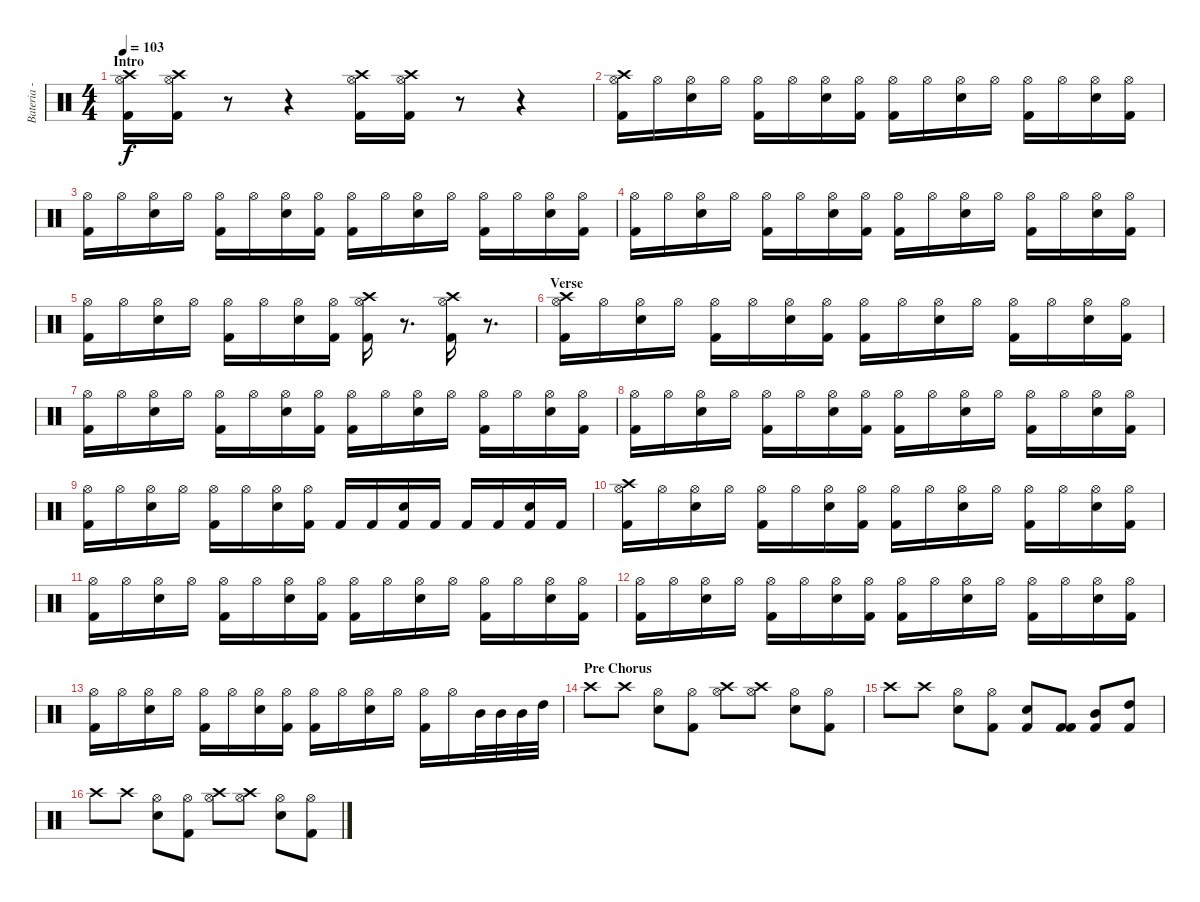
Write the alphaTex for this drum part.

\track ("Bateria - Larzon" "Bateria - ") {instrument percussion}
\staff {score}
\articulation defaults
\ts (4 4)
\section ("" "Intro")
\tempo 103
\clef neutral
\ks c
("Hi-Hat (open)" "Crash high (hit)" "Kick (hit) 2").16{dy f} ("Hi-Hat (open)" "Crash high (hit)" "Kick (hit) 2").16 r.8{volume 0} r.4 ("Hi-Hat (open)" "Crash high (hit)" "Kick (hit) 2").16{volume 13} ("Hi-Hat (open)" "Crash high (hit)" "Kick (hit) 2").16 r.8{volume 0} r.4 |
("Kick (hit) 2" "Crash high (hit)" "Hi-Hat (open)").16{volume 13} "Hi-Hat (open)".16 ("Snare (hit) 2" "Hi-Hat (open)").16 "Hi-Hat (open)".16 ("Kick (hit) 2" "Hi-Hat (open)").16 "Hi-Hat (open)".16 ("Snare (hit) 2" "Hi-Hat (open)").16 ("Kick (hit) 2" "Hi-Hat (open)").16 ("Kick (hit) 2" "Hi-Hat (open)").16 "Hi-Hat (open)".16 ("Snare (hit) 2" "Hi-Hat (open)").16 "Hi-Hat (open)".16 ("Kick (hit) 2" "Hi-Hat (open)").16 "Hi-Hat (open)".16 ("Snare (hit) 2" "Hi-Hat (open)").16 ("Kick (hit) 2" "Hi-Hat (open)").16 |
("Kick (hit) 2" "Hi-Hat (open)").16 "Hi-Hat (open)".16 ("Snare (hit) 2" "Hi-Hat (open)").16 "Hi-Hat (open)".16 ("Kick (hit) 2" "Hi-Hat (open)").16 "Hi-Hat (open)".16 ("Snare (hit) 2" "Hi-Hat (open)").16 ("Kick (hit) 2" "Hi-Hat (open)").16 ("Kick (hit) 2" "Hi-Hat (open)").16 "Hi-Hat (open)".16 ("Snare (hit) 2" "Hi-Hat (open)").16 "Hi-Hat (open)".16 ("Kick (hit) 2" "Hi-Hat (open)").16 "Hi-Hat (open)".16 ("Snare (hit) 2" "Hi-Hat (open)").16 ("Kick (hit) 2" "Hi-Hat (open)").16 |
("Kick (hit) 2" "Hi-Hat (open)").16 "Hi-Hat (open)".16 ("Snare (hit) 2" "Hi-Hat (open)").16 "Hi-Hat (open)".16 ("Kick (hit) 2" "Hi-Hat (open)").16 "Hi-Hat (open)".16 ("Snare (hit) 2" "Hi-Hat (open)").16 ("Kick (hit) 2" "Hi-Hat (open)").16 ("Kick (hit) 2" "Hi-Hat (open)").16 "Hi-Hat (open)".16 ("Snare (hit) 2" "Hi-Hat (open)").16 "Hi-Hat (open)".16 ("Kick (hit) 2" "Hi-Hat (open)").16 "Hi-Hat (open)".16 ("Snare (hit) 2" "Hi-Hat (open)").16 ("Kick (hit) 2" "Hi-Hat (open)").16 |
("Kick (hit) 2" "Hi-Hat (open)").16 "Hi-Hat (open)".16 ("Snare (hit) 2" "Hi-Hat (open)").16 "Hi-Hat (open)".16 ("Kick (hit) 2" "Hi-Hat (open)").16 "Hi-Hat (open)".16 ("Snare (hit) 2" "Hi-Hat (open)").16 ("Kick (hit) 2" "Hi-Hat (open)").16 ("Hi-Hat (open)" "Crash high (hit)" "Kick (hit) 2").16 r.8{d volume 0} ("Hi-Hat (open)" "Crash high (hit)" "Kick (hit) 2").16{volume 13} r.8{d volume 0} |
\section ("" "Verse")
("Kick (hit) 2" "Crash high (hit)" "Hi-Hat (open)").16{volume 13} "Hi-Hat (open)".16 ("Snare (hit) 2" "Hi-Hat (open)").16 "Hi-Hat (open)".16 ("Kick (hit) 2" "Hi-Hat (open)").16 "Hi-Hat (open)".16 ("Snare (hit) 2" "Hi-Hat (open)").16 ("Kick (hit) 2" "Hi-Hat (open)").16 ("Kick (hit) 2" "Hi-Hat (open)").16 "Hi-Hat (open)".16 ("Snare (hit) 2" "Hi-Hat (open)").16 "Hi-Hat (open)".16 ("Kick (hit) 2" "Hi-Hat (open)").16 "Hi-Hat (open)".16 ("Snare (hit) 2" "Hi-Hat (open)").16 ("Kick (hit) 2" "Hi-Hat (open)").16 |
("Kick (hit) 2" "Hi-Hat (open)").16 "Hi-Hat (open)".16 ("Snare (hit) 2" "Hi-Hat (open)").16 "Hi-Hat (open)".16 ("Kick (hit) 2" "Hi-Hat (open)").16 "Hi-Hat (open)".16 ("Snare (hit) 2" "Hi-Hat (open)").16 ("Kick (hit) 2" "Hi-Hat (open)").16 ("Kick (hit) 2" "Hi-Hat (open)").16 "Hi-Hat (open)".16 ("Snare (hit) 2" "Hi-Hat (open)").16 "Hi-Hat (open)".16 ("Kick (hit) 2" "Hi-Hat (open)").16 "Hi-Hat (open)".16 ("Snare (hit) 2" "Hi-Hat (open)").16 ("Kick (hit) 2" "Hi-Hat (open)").16 |
("Kick (hit) 2" "Hi-Hat (open)").16 "Hi-Hat (open)".16 ("Snare (hit) 2" "Hi-Hat (open)").16 "Hi-Hat (open)".16 ("Kick (hit) 2" "Hi-Hat (open)").16 "Hi-Hat (open)".16 ("Snare (hit) 2" "Hi-Hat (open)").16 ("Kick (hit) 2" "Hi-Hat (open)").16 ("Kick (hit) 2" "Hi-Hat (open)").16 "Hi-Hat (open)".16 ("Snare (hit) 2" "Hi-Hat (open)").16 "Hi-Hat (open)".16 ("Kick (hit) 2" "Hi-Hat (open)").16 "Hi-Hat (open)".16 ("Snare (hit) 2" "Hi-Hat (open)").16 ("Kick (hit) 2" "Hi-Hat (open)").16 |
("Kick (hit) 2" "Hi-Hat (open)").16 "Hi-Hat (open)".16 ("Snare (hit) 2" "Hi-Hat (open)").16 "Hi-Hat (open)".16 ("Kick (hit) 2" "Hi-Hat (open)").16 "Hi-Hat (open)".16 ("Snare (hit) 2" "Hi-Hat (open)").16 ("Kick (hit) 2" "Hi-Hat (open)").16 "Kick (hit) 2".16 "Kick (hit) 2".16 ("Kick (hit) 2" "Snare (hit) 2").16 "Kick (hit) 2".16 "Kick (hit) 2".16 "Kick (hit) 2".16 ("Kick (hit) 2" "Snare (hit) 2").16 "Kick (hit) 2".16 |
("Kick (hit) 2" "Crash high (hit)" "Hi-Hat (open)").16{volume 13} "Hi-Hat (open)".16 ("Snare (hit) 2" "Hi-Hat (open)").16 "Hi-Hat (open)".16 ("Kick (hit) 2" "Hi-Hat (open)").16 "Hi-Hat (open)".16 ("Snare (hit) 2" "Hi-Hat (open)").16 ("Kick (hit) 2" "Hi-Hat (open)").16 ("Kick (hit) 2" "Hi-Hat (open)").16 "Hi-Hat (open)".16 ("Snare (hit) 2" "Hi-Hat (open)").16 "Hi-Hat (open)".16 ("Kick (hit) 2" "Hi-Hat (open)").16 "Hi-Hat (open)".16 ("Snare (hit) 2" "Hi-Hat (open)").16 ("Kick (hit) 2" "Hi-Hat (open)").16 |
("Kick (hit) 2" "Hi-Hat (open)").16 "Hi-Hat (open)".16 ("Snare (hit) 2" "Hi-Hat (open)").16 "Hi-Hat (open)".16 ("Kick (hit) 2" "Hi-Hat (open)").16 "Hi-Hat (open)".16 ("Snare (hit) 2" "Hi-Hat (open)").16 ("Kick (hit) 2" "Hi-Hat (open)").16 ("Kick (hit) 2" "Hi-Hat (open)").16 "Hi-Hat (open)".16 ("Snare (hit) 2" "Hi-Hat (open)").16 "Hi-Hat (open)".16 ("Kick (hit) 2" "Hi-Hat (open)").16 "Hi-Hat (open)".16 ("Snare (hit) 2" "Hi-Hat (open)").16 ("Kick (hit) 2" "Hi-Hat (open)").16 |
("Kick (hit) 2" "Hi-Hat (open)").16 "Hi-Hat (open)".16 ("Snare (hit) 2" "Hi-Hat (open)").16 "Hi-Hat (open)".16 ("Kick (hit) 2" "Hi-Hat (open)").16 "Hi-Hat (open)".16 ("Snare (hit) 2" "Hi-Hat (open)").16 ("Kick (hit) 2" "Hi-Hat (open)").16 ("Kick (hit) 2" "Hi-Hat (open)").16 "Hi-Hat (open)".16 ("Snare (hit) 2" "Hi-Hat (open)").16 "Hi-Hat (open)".16 ("Kick (hit) 2" "Hi-Hat (open)").16 "Hi-Hat (open)".16 ("Snare (hit) 2" "Hi-Hat (open)").16 ("Kick (hit) 2" "Hi-Hat (open)").16 |
("Kick (hit) 2" "Hi-Hat (open)").16 "Hi-Hat (open)".16 ("Snare (hit) 2" "Hi-Hat (open)").16 "Hi-Hat (open)".16 ("Kick (hit) 2" "Hi-Hat (open)").16 "Hi-Hat (open)".16 ("Snare (hit) 2" "Hi-Hat (open)").16 ("Kick (hit) 2" "Hi-Hat (open)").16 ("Kick (hit) 2" "Hi-Hat (open)").16 "Hi-Hat (open)".16 ("Snare (hit) 2" "Hi-Hat (open)").16 "Hi-Hat (open)".16 ("Kick (hit) 2" "Hi-Hat (open)").16 "Hi-Hat (open)".16 "Mid Tom (hit)".32 "Mid Tom (hit)".32 "Mid Tom (hit)".32 "High Tom (hit)".32 |
\section ("" "Pre Chorus")
"Crash high (hit)".8 "Crash high (hit)".8 ("Snare (hit) 2" "Hi-Hat (open)").8 ("Kick (hit) 2" "Hi-Hat (open)").8 ("Crash high (hit)" "Hi-Hat (open)").8 ("Crash high (hit)" "Hi-Hat (open)").8 ("Snare (hit) 2" "Hi-Hat (open)").8 ("Kick (hit) 2" "Hi-Hat (open)").8 |
"Crash high (hit)".8 "Crash high (hit)".8 ("Snare (hit) 2" "Hi-Hat (open)").8 ("Kick (hit) 2" "Hi-Hat (open)").8 ("Snare (hit) 2" "Kick (hit) 2").8 ("Kick (hit) 2" "Kick (hit) 2").8 ("Mid Tom (hit)" "Kick (hit) 2").8 ("High Tom (hit)" "Kick (hit) 2").8 |
"Crash high (hit)".8 "Crash high (hit)".8 ("Snare (hit) 2" "Hi-Hat (open)").8 ("Kick (hit) 2" "Hi-Hat (open)").8 ("Crash high (hit)" "Hi-Hat (open)").8 ("Crash high (hit)" "Hi-Hat (open)").8 ("Snare (hit) 2" "Hi-Hat (open)").8 ("Kick (hit) 2" "Hi-Hat (open)").8
